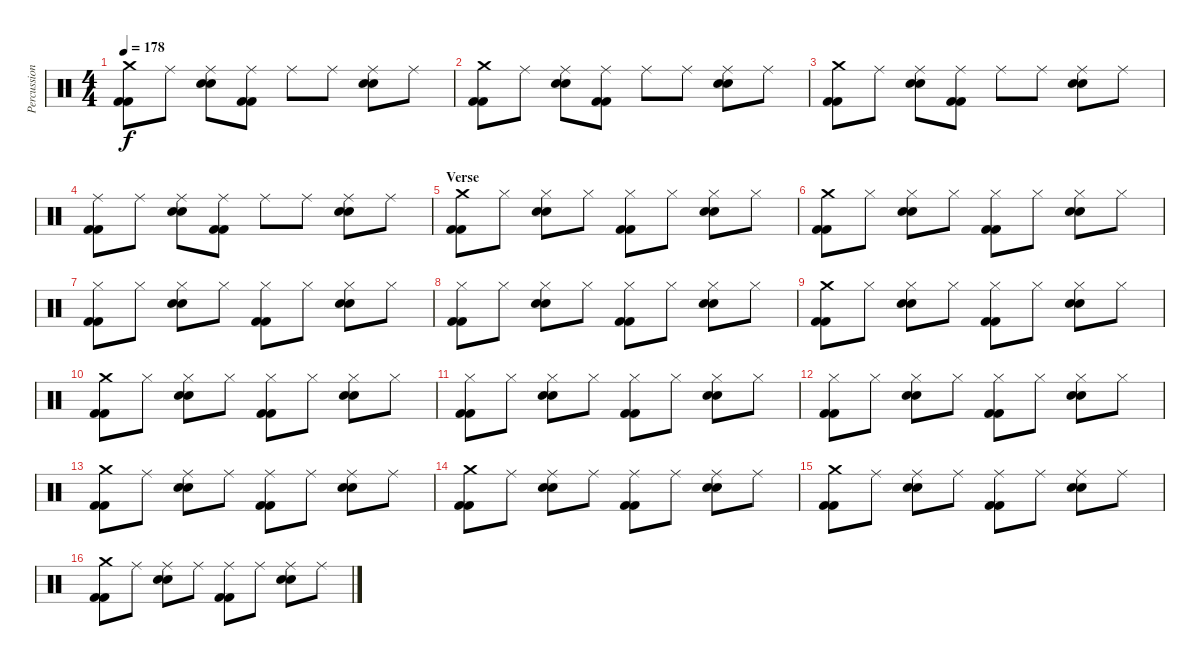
\track ("Percussion" "Percussion") {instrument percussion}
\staff {score}
\articulation defaults
\ts (4 4)
\tempo 178
\clef neutral
\ks c
("Crash medium (hit)" "Kick (hit) 2" "Kick (hit) 2").8{dy f} "Ride (middle)".8 ("Ride (middle)" "Snare (hit) 2" "Snare (hit) 2").8 ("Ride (middle)" "Kick (hit) 2" "Kick (hit) 2").8 "Ride (middle)".8 "Ride (middle)".8 ("Ride (middle)" "Snare (hit) 2" "Snare (hit) 2").8 "Ride (middle)".8 |
("Crash medium (hit)" "Kick (hit) 2" "Kick (hit) 2").8 "Ride (middle)".8 ("Ride (middle)" "Snare (hit) 2" "Snare (hit) 2").8 ("Ride (middle)" "Kick (hit) 2" "Kick (hit) 2").8 "Ride (middle)".8 "Ride (middle)".8 ("Ride (middle)" "Snare (hit) 2" "Snare (hit) 2").8 "Ride (middle)".8 |
("Crash medium (hit)" "Kick (hit) 2" "Kick (hit) 2").8 "Ride (middle)".8 ("Ride (middle)" "Snare (hit) 2" "Snare (hit) 2").8 ("Ride (middle)" "Kick (hit) 2" "Kick (hit) 2").8 "Ride (middle)".8 "Ride (middle)".8 ("Ride (middle)" "Snare (hit) 2" "Snare (hit) 2").8 "Ride (middle)".8 |
("Ride (middle)" "Kick (hit) 2" "Kick (hit) 2").8 "Ride (middle)".8 ("Ride (middle)" "Snare (hit) 2" "Snare (hit) 2").8 ("Ride (middle)" "Kick (hit) 2" "Kick (hit) 2").8 "Ride (middle)".8 "Ride (middle)".8 ("Ride (middle)" "Snare (hit) 2" "Snare (hit) 2").8 "Ride (middle)".8 |
\section ("" "Verse")
("Crash medium (hit)" "Kick (hit) 2" "Kick (hit) 2").8 "Hi-Hat (closed)".8 ("Hi-Hat (closed)" "Snare (hit) 2" "Snare (hit) 2").8 "Hi-Hat (closed)".8 ("Hi-Hat (closed)" "Kick (hit) 2" "Kick (hit) 2").8 "Hi-Hat (closed)".8 ("Hi-Hat (closed)" "Snare (hit) 2" "Snare (hit) 2").8 "Hi-Hat (closed)".8 |
("Crash medium (hit)" "Kick (hit) 2" "Kick (hit) 2").8 "Hi-Hat (closed)".8 ("Hi-Hat (closed)" "Snare (hit) 2" "Snare (hit) 2").8 "Hi-Hat (closed)".8 ("Hi-Hat (closed)" "Kick (hit) 2" "Kick (hit) 2").8 "Hi-Hat (closed)".8 ("Hi-Hat (closed)" "Snare (hit) 2" "Snare (hit) 2").8 "Hi-Hat (closed)".8 |
("Hi-Hat (closed)" "Kick (hit) 2" "Kick (hit) 2").8 "Hi-Hat (closed)".8 ("Hi-Hat (closed)" "Snare (hit) 2" "Snare (hit) 2").8 "Hi-Hat (closed)".8 ("Hi-Hat (closed)" "Kick (hit) 2" "Kick (hit) 2").8 "Hi-Hat (closed)".8 ("Hi-Hat (closed)" "Snare (hit) 2" "Snare (hit) 2").8 "Hi-Hat (closed)".8 |
("Hi-Hat (closed)" "Kick (hit) 2" "Kick (hit) 2").8 "Hi-Hat (closed)".8 ("Hi-Hat (closed)" "Snare (hit) 2" "Snare (hit) 2").8 "Hi-Hat (closed)".8 ("Hi-Hat (closed)" "Kick (hit) 2" "Kick (hit) 2").8 "Hi-Hat (closed)".8 ("Hi-Hat (closed)" "Snare (hit) 2" "Snare (hit) 2").8 "Hi-Hat (closed)".8 |
("Crash medium (hit)" "Kick (hit) 2" "Kick (hit) 2").8 "Hi-Hat (closed)".8 ("Hi-Hat (closed)" "Snare (hit) 2" "Snare (hit) 2").8 "Hi-Hat (closed)".8 ("Hi-Hat (closed)" "Kick (hit) 2" "Kick (hit) 2").8 "Hi-Hat (closed)".8 ("Hi-Hat (closed)" "Snare (hit) 2" "Snare (hit) 2").8 "Hi-Hat (closed)".8 |
("Crash medium (hit)" "Kick (hit) 2" "Kick (hit) 2").8 "Hi-Hat (closed)".8 ("Hi-Hat (closed)" "Snare (hit) 2" "Snare (hit) 2").8 "Hi-Hat (closed)".8 ("Hi-Hat (closed)" "Kick (hit) 2" "Kick (hit) 2").8 "Hi-Hat (closed)".8 ("Hi-Hat (closed)" "Snare (hit) 2" "Snare (hit) 2").8 "Hi-Hat (closed)".8 |
("Hi-Hat (closed)" "Kick (hit) 2" "Kick (hit) 2").8 "Hi-Hat (closed)".8 ("Hi-Hat (closed)" "Snare (hit) 2" "Snare (hit) 2").8 "Hi-Hat (closed)".8 ("Hi-Hat (closed)" "Kick (hit) 2" "Kick (hit) 2").8 "Hi-Hat (closed)".8 ("Hi-Hat (closed)" "Snare (hit) 2" "Snare (hit) 2").8 "Hi-Hat (closed)".8 |
("Hi-Hat (closed)" "Kick (hit) 2" "Kick (hit) 2").8 "Hi-Hat (closed)".8 ("Hi-Hat (closed)" "Snare (hit) 2" "Snare (hit) 2").8 "Hi-Hat (closed)".8 ("Hi-Hat (closed)" "Kick (hit) 2" "Kick (hit) 2").8 "Hi-Hat (closed)".8 ("Hi-Hat (closed)" "Snare (hit) 2" "Snare (hit) 2").8 "Hi-Hat (closed)".8 |
("Crash medium (hit)" "Kick (hit) 2" "Kick (hit) 2").8 "Ride (middle)".8 ("Ride (middle)" "Snare (hit) 2" "Snare (hit) 2").8 "Ride (middle)".8 ("Ride (middle)" "Kick (hit) 2" "Kick (hit) 2").8 "Ride (middle)".8 ("Ride (middle)" "Snare (hit) 2" "Snare (hit) 2").8 "Ride (middle)".8 |
("Crash medium (hit)" "Kick (hit) 2" "Kick (hit) 2").8 "Ride (middle)".8 ("Ride (middle)" "Snare (hit) 2" "Snare (hit) 2").8 "Ride (middle)".8 ("Ride (middle)" "Kick (hit) 2" "Kick (hit) 2").8 "Ride (middle)".8 ("Ride (middle)" "Snare (hit) 2" "Snare (hit) 2").8 "Ride (middle)".8 |
("Crash medium (hit)" "Kick (hit) 2" "Kick (hit) 2").8 "Ride (middle)".8 ("Ride (middle)" "Snare (hit) 2" "Snare (hit) 2").8 "Ride (middle)".8 ("Ride (middle)" "Kick (hit) 2" "Kick (hit) 2").8 "Ride (middle)".8 ("Ride (middle)" "Snare (hit) 2" "Snare (hit) 2").8 "Ride (middle)".8 |
("Crash medium (hit)" "Kick (hit) 2" "Kick (hit) 2").8 "Ride (middle)".8 ("Ride (middle)" "Snare (hit) 2" "Snare (hit) 2").8 "Ride (middle)".8 ("Ride (middle)" "Kick (hit) 2" "Kick (hit) 2").8 "Ride (middle)".8 ("Ride (middle)" "Snare (hit) 2" "Snare (hit) 2").8 "Ride (middle)".8
